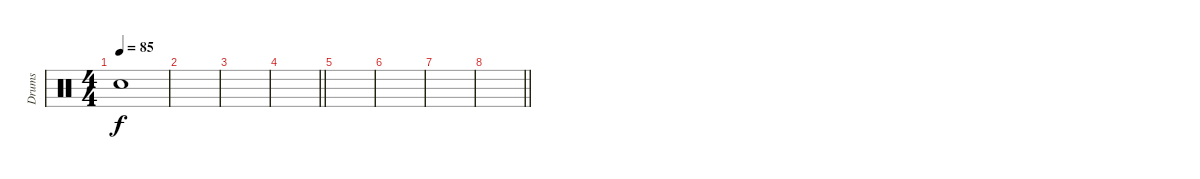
\track ("Drums" "Drums") {instrument percussion}
\staff {score}
\articulation defaults
\ts (4 4)
\tempo 85
\clef neutral
\ks c "Snare (hit) 2".1{dy f}
|
|
|
\barLineRight lightlight
|
|
|
|
\barLineRight lightlight
